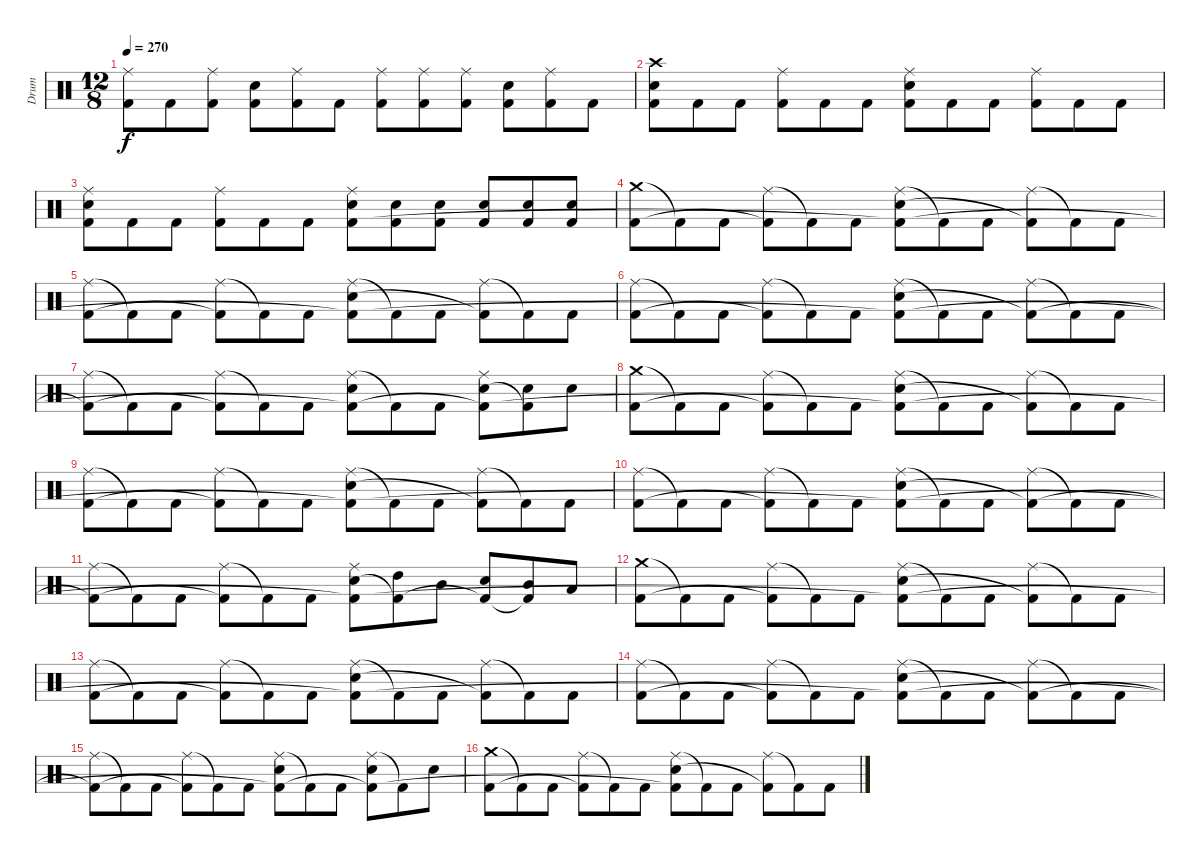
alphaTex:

\track ("Drum" "Drum") {instrument percussion}
\staff {score}
\articulation defaults
\ts (12 8)
\tempo 270
\clef neutral
\ks c
("Ride (middle)" "Kick (hit) 2").8{dy f} "Kick (hit) 2".8 ("Ride (middle)" "Kick (hit) 2").8 ("Electric Snare (hit)" "Kick (hit) 2").8 ("Ride (middle)" "Kick (hit) 2").8 "Kick (hit) 2".8 ("Ride (middle)" "Kick (hit) 2").8 ("Ride (middle)" "Kick (hit) 2").8 ("Ride (middle)" "Kick (hit) 2").8 ("Electric Snare (hit)" "Kick (hit) 2").8 ("Ride (middle)" "Kick (hit) 2").8 "Kick (hit) 2".8 |
("Crash high (hit)" "Electric Snare (hit)" "Kick (hit) 2").8 "Kick (hit) 2".8 "Kick (hit) 2".8 ("Ride (middle)" "Kick (hit) 2").8 "Kick (hit) 2".8 "Kick (hit) 2".8 ("Ride (middle)" "Electric Snare (hit)" "Kick (hit) 2").8 "Kick (hit) 2".8 "Kick (hit) 2".8 ("Ride (middle)" "Kick (hit) 2").8 "Kick (hit) 2".8 "Kick (hit) 2".8 |
("Ride (middle)" "Electric Snare (hit)" "Kick (hit) 2").8 "Kick (hit) 2".8 "Kick (hit) 2".8 ("Ride (middle)" "Kick (hit) 2").8 "Kick (hit) 2".8 "Kick (hit) 2".8 ("Ride (middle)" "Electric Snare (hit)" "Kick (hit) 2").8 ("Electric Snare (hit)" "Kick (hit) 2").8 ("Electric Snare (hit)" "Kick (hit) 2").8 ("Electric Snare (hit)" "Kick (hit) 2").8 ("Electric Snare (hit)" "Kick (hit) 2").8 ("Electric Snare (hit)" "Kick (hit) 2").8 |
("Crash medium (hit)" "Kick (hit) 2").8 "Kick (hit) 2"{t}.8 "Kick (hit) 2".8 ("Ride (middle)" "Kick (hit) 2"{t}).8 "Kick (hit) 2"{t}.8 "Kick (hit) 2".8 ("Ride (middle)" "Electric Snare (hit)" "Kick (hit) 2"{t}).8 "Kick (hit) 2"{t}.8 "Kick (hit) 2".8 ("Ride (middle)" "Kick (hit) 2"{t}).8 "Kick (hit) 2"{t}.8 "Kick (hit) 2".8 |
("Ride (middle)" "Kick (hit) 2").8 "Kick (hit) 2"{t}.8 "Kick (hit) 2".8 ("Ride (middle)" "Kick (hit) 2"{t}).8 "Kick (hit) 2"{t}.8 "Kick (hit) 2".8 ("Ride (middle)" "Electric Snare (hit)" "Kick (hit) 2"{t}).8 "Kick (hit) 2"{t}.8 "Kick (hit) 2".8 ("Ride (middle)" "Kick (hit) 2"{t}).8 "Kick (hit) 2"{t}.8 "Kick (hit) 2".8 |
("Ride (middle)" "Kick (hit) 2").8 "Kick (hit) 2"{t}.8 "Kick (hit) 2".8 ("Ride (middle)" "Kick (hit) 2"{t}).8 "Kick (hit) 2"{t}.8 "Kick (hit) 2".8 ("Ride (middle)" "Electric Snare (hit)" "Kick (hit) 2"{t}).8 "Kick (hit) 2"{t}.8 "Kick (hit) 2".8 ("Ride (middle)" "Kick (hit) 2"{t}).8 "Kick (hit) 2"{t}.8 "Kick (hit) 2".8 |
("Ride (middle)" "Kick (hit) 2"{t}).8 "Kick (hit) 2"{t}.8 "Kick (hit) 2".8 ("Ride (middle)" "Kick (hit) 2"{t}).8 "Kick (hit) 2"{t}.8 "Kick (hit) 2".8 ("Ride (middle)" "Electric Snare (hit)" "Kick (hit) 2"{t}).8 "Kick (hit) 2"{t}.8 "Kick (hit) 2".8 ("Ride (middle)" "Electric Snare (hit)" "Kick (hit) 2"{t}).8 ("Electric Snare (hit)" "Kick (hit) 2"{t}).8 "Electric Snare (hit)".8 |
("Crash medium (hit)" "Kick (hit) 2").8 "Kick (hit) 2"{t}.8 "Kick (hit) 2".8 ("Ride (middle)" "Kick (hit) 2"{t}).8 "Kick (hit) 2"{t}.8 "Kick (hit) 2".8 ("Ride (middle)" "Electric Snare (hit)" "Kick (hit) 2"{t}).8 "Kick (hit) 2"{t}.8 "Kick (hit) 2".8 ("Ride (middle)" "Kick (hit) 2"{t}).8 "Kick (hit) 2"{t}.8 "Kick (hit) 2".8 |
("Ride (middle)" "Kick (hit) 2").8 "Kick (hit) 2"{t}.8 "Kick (hit) 2".8 ("Ride (middle)" "Kick (hit) 2"{t}).8 "Kick (hit) 2"{t}.8 "Kick (hit) 2".8 ("Ride (middle)" "Electric Snare (hit)" "Kick (hit) 2"{t}).8 "Kick (hit) 2"{t}.8 "Kick (hit) 2".8 ("Ride (middle)" "Kick (hit) 2"{t}).8 "Kick (hit) 2"{t}.8 "Kick (hit) 2".8 |
("Ride (middle)" "Kick (hit) 2").8 "Kick (hit) 2"{t}.8 "Kick (hit) 2".8 ("Ride (middle)" "Kick (hit) 2"{t}).8 "Kick (hit) 2"{t}.8 "Kick (hit) 2".8 ("Ride (middle)" "Electric Snare (hit)" "Kick (hit) 2"{t}).8 "Kick (hit) 2"{t}.8 "Kick (hit) 2".8 ("Ride (middle)" "Kick (hit) 2"{t}).8 "Kick (hit) 2"{t}.8 "Kick (hit) 2".8 |
("Ride (middle)" "Kick (hit) 2"{t}).8 "Kick (hit) 2"{t}.8 "Kick (hit) 2".8 ("Ride (middle)" "Kick (hit) 2"{t}).8 "Kick (hit) 2"{t}.8 "Kick (hit) 2".8 ("Ride (middle)" "Electric Snare (hit)" "Kick (hit) 2"{t}).8 ("High Tom (hit)" "Kick (hit) 2"{t}).8 "Mid Tom (hit)".8 ("Electric Snare (hit)" "Kick (hit) 2"{t}).8 ("Mid Tom (hit)" "Kick (hit) 2"{t}).8 "Low Tom (hit)".8 |
("Crash medium (hit)" "Kick (hit) 2").8 "Kick (hit) 2"{t}.8 "Kick (hit) 2".8 ("Ride (middle)" "Kick (hit) 2"{t}).8 "Kick (hit) 2"{t}.8 "Kick (hit) 2".8 ("Ride (middle)" "Electric Snare (hit)" "Kick (hit) 2"{t}).8 "Kick (hit) 2"{t}.8 "Kick (hit) 2".8 ("Ride (middle)" "Kick (hit) 2"{t}).8 "Kick (hit) 2"{t}.8 "Kick (hit) 2".8 |
("Ride (middle)" "Kick (hit) 2").8 "Kick (hit) 2"{t}.8 "Kick (hit) 2".8 ("Ride (middle)" "Kick (hit) 2"{t}).8 "Kick (hit) 2"{t}.8 "Kick (hit) 2".8 ("Ride (middle)" "Electric Snare (hit)" "Kick (hit) 2"{t}).8 "Kick (hit) 2"{t}.8 "Kick (hit) 2".8 ("Ride (middle)" "Kick (hit) 2"{t}).8 "Kick (hit) 2"{t}.8 "Kick (hit) 2".8 |
("Ride (middle)" "Kick (hit) 2").8 "Kick (hit) 2"{t}.8 "Kick (hit) 2".8 ("Ride (middle)" "Kick (hit) 2"{t}).8 "Kick (hit) 2"{t}.8 "Kick (hit) 2".8 ("Ride (middle)" "Electric Snare (hit)" "Kick (hit) 2"{t}).8 "Kick (hit) 2"{t}.8 "Kick (hit) 2".8 ("Ride (middle)" "Kick (hit) 2"{t}).8 "Kick (hit) 2"{t}.8 "Kick (hit) 2".8 |
("Ride (middle)" "Kick (hit) 2"{t}).8 "Kick (hit) 2"{t}.8 "Kick (hit) 2".8 ("Ride (middle)" "Kick (hit) 2"{t}).8 "Kick (hit) 2"{t}.8 "Kick (hit) 2".8 ("Ride (middle)" "Electric Snare (hit)" "Kick (hit) 2"{t}).8 "Kick (hit) 2"{t}.8 "Kick (hit) 2".8 ("Ride (middle)" "Electric Snare (hit)" "Kick (hit) 2"{t}).8 "Kick (hit) 2"{t}.8 "Electric Snare (hit)".8 |
("Crash medium (hit)" "Kick (hit) 2").8 "Kick (hit) 2"{t}.8 "Kick (hit) 2".8 ("Ride (middle)" "Kick (hit) 2"{t}).8 "Kick (hit) 2"{t}.8 "Kick (hit) 2".8 ("Ride (middle)" "Electric Snare (hit)" "Kick (hit) 2"{t}).8 "Kick (hit) 2"{t}.8 "Kick (hit) 2".8 ("Ride (middle)" "Kick (hit) 2"{t}).8 "Kick (hit) 2"{t}.8 "Kick (hit) 2".8
